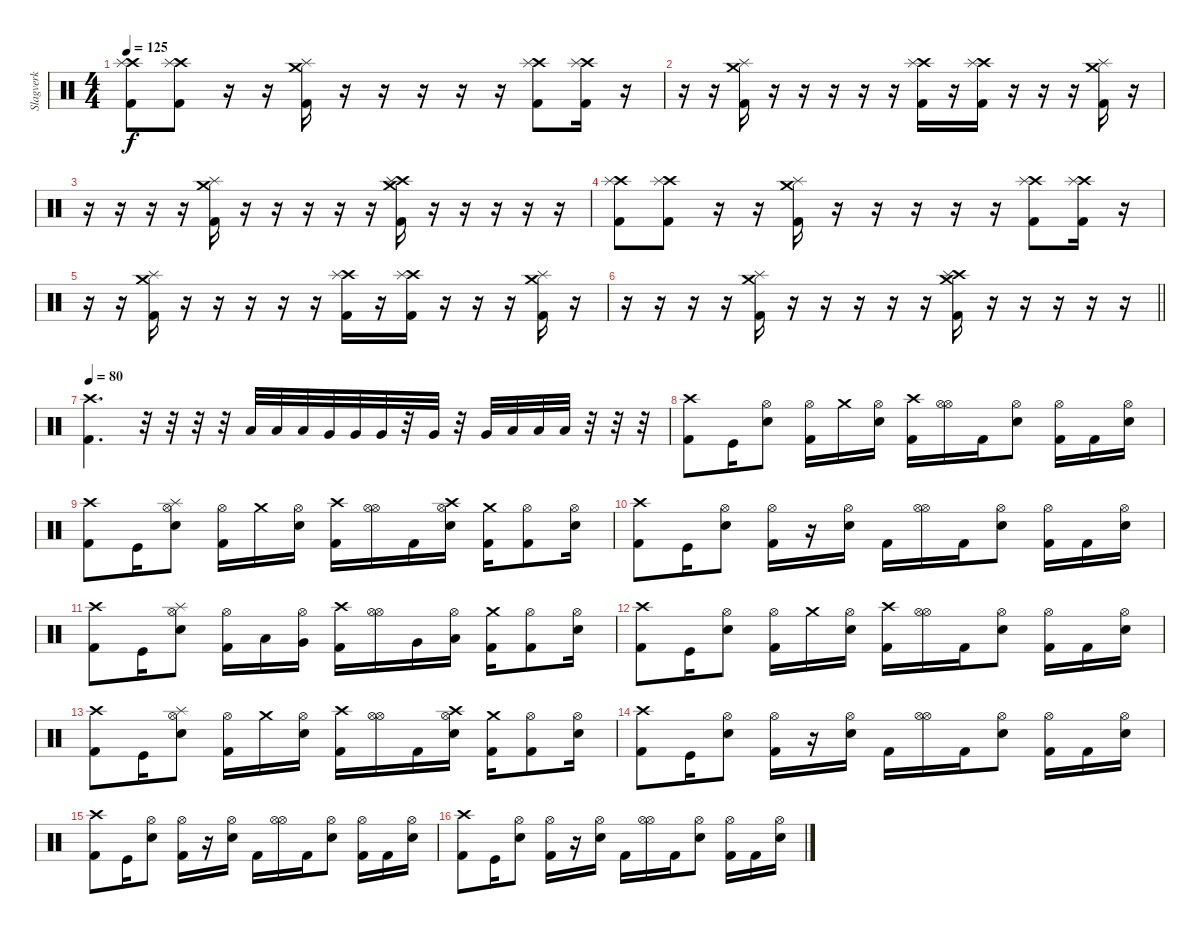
\track ("Slagverk" "Slagverk") {instrument percussion}
\staff
\articulation defaults
\ts (4 4)
\tempo 125
\clef neutral
\ks c
("Kick (hit) 2" "Crash high (hit)" "Splash (hit)").8{dy f} ("Kick (hit) 2" "Crash high (hit)" "Splash (hit)").8 r.16{volume 0} r.16 ("Splash (hit)" "Crash medium (hit)" "Kick (hit) 2").16{volume 13} r.16 r.16 r.16 r.16 r.16 ("Kick (hit) 2" "Crash high (hit)" "Splash (hit)").8 ("Kick (hit) 2" "Crash high (hit)" "Splash (hit)").16 r.16 |
r.16{volume 0} r.16 ("Splash (hit)" "Crash medium (hit)" "Kick (hit) 2").16{volume 13} r.16 r.16 r.16 r.16 r.16 ("Crash high (hit)" "Splash (hit)" "Kick (hit) 2").16 r.16 ("Crash high (hit)" "Kick (hit) 2" "Splash (hit)").16 r.16 r.16{volume 0} r.16 ("Crash medium (hit)" "Kick (hit) 2" "Splash (hit)").16{volume 13} r.16 |
r.16 r.16 r.16 r.16 ("Crash medium (hit)" "Kick (hit) 2" "Splash (hit)").16 r.16 r.16 r.16 r.16 r.16 ("Crash high (hit)" "Kick (hit) 2" "Splash (hit)" "Crash medium (hit)").16 r.16 r.16 r.16 r.16 r.16 |
("Kick (hit) 2" "Crash high (hit)" "Splash (hit)").8 ("Kick (hit) 2" "Crash high (hit)" "Splash (hit)").8 r.16{volume 0} r.16 ("Splash (hit)" "Crash medium (hit)" "Kick (hit) 2").16{volume 13} r.16 r.16 r.16 r.16 r.16 ("Kick (hit) 2" "Crash high (hit)" "Splash (hit)").8 ("Kick (hit) 2" "Crash high (hit)" "Splash (hit)").16 r.16 |
r.16{volume 0} r.16 ("Splash (hit)" "Crash medium (hit)" "Kick (hit) 2").16{volume 13} r.16 r.16 r.16 r.16 r.16 ("Crash high (hit)" "Splash (hit)" "Kick (hit) 2").16 r.16 ("Crash high (hit)" "Kick (hit) 2" "Splash (hit)").16 r.16 r.16{volume 0} r.16 ("Crash medium (hit)" "Kick (hit) 2" "Splash (hit)").16{volume 13} r.16 |
\barLineRight lightlight
r.16 r.16 r.16 r.16 ("Crash medium (hit)" "Kick (hit) 2" "Splash (hit)").16 r.16 r.16 r.16 r.16 r.16 ("Crash high (hit)" "Kick (hit) 2" "Splash (hit)" "Crash medium (hit)").16 r.16 r.16 r.16 r.16 r.16 |
\tempo 80
("Kick (hit) 2" "Crash high (hit)").4{d} r.32 r.32 r.32 r.32 "Low Tom (hit)".32 "Low Tom (hit)".32 "Low Tom (hit)".32 "Very Low Tom (hit)".32 "Very Low Tom (hit)".32 "Very Low Tom (hit)".32 r.32 "Very Low Tom (hit)".32 r.32 "Very Low Tom (hit)".32 "Low Floor Tom (hit)".32 "Low Floor Tom (hit)".32 "Low Floor Tom (hit)".32 r.32 r.32 r.32 |
("Crash high (hit)" "Kick (hit) 2").8 "Kick (hit)".16 ("Hi-Hat (open)" "Snare (hit) 2").8 ("Hi-Hat (open)" "Kick (hit) 2").16 "Crash medium (hit)".16 ("Hi-Hat (open)" "Snare (hit) 2").16 ("Kick (hit) 2" "Crash high (hit)").16 ("Hi-Hat (open)" "Hi-Hat (open)").16 "Kick (hit) 2".16 ("Hi-Hat (open)" "Snare (hit) 2").8 ("Hi-Hat (open)" "Kick (hit) 2").16 "Kick (hit) 2".16 ("Hi-Hat (open)" "Snare (hit) 2").16 |
("Crash high (hit)" "Kick (hit) 2").8 "Kick (hit)".16 ("Hi-Hat (open)" "Snare (hit) 2" "Splash (hit)").8 ("Hi-Hat (open)" "Kick (hit) 2").16 "Crash medium (hit)".16 ("Hi-Hat (open)" "Snare (hit) 2").16 ("Kick (hit) 2" "Crash high (hit)").16 ("Hi-Hat (open)" "Hi-Hat (open)").16 "Kick (hit) 2".16 ("Hi-Hat (open)" "Snare (hit) 2" "Crash high (hit)").16 ("Kick (hit) 2" "Crash medium (hit)").16 ("Hi-Hat (open)" "Kick (hit) 2").8 ("Hi-Hat (open)" "Snare (hit) 2").16 |
("Crash high (hit)" "Kick (hit) 2").8 "Kick (hit)".16 ("Hi-Hat (open)" "Snare (hit) 2").8 ("Hi-Hat (open)" "Kick (hit) 2").16 r.16 ("Hi-Hat (open)" "Snare (hit) 2").16 "Kick (hit) 2".16 ("Hi-Hat (open)" "Hi-Hat (open)").16 "Kick (hit) 2".16 ("Hi-Hat (open)" "Snare (hit) 2").8 ("Hi-Hat (open)" "Kick (hit) 2").16 "Kick (hit) 2".16 ("Hi-Hat (open)" "Snare (hit) 2").16 |
("Crash high (hit)" "Kick (hit) 2").8 "Kick (hit)".16 ("Hi-Hat (open)" "Snare (hit) 2" "Splash (hit)").8 ("Hi-Hat (open)" "Kick (hit) 2").16 "Low Tom (hit)".16 ("Hi-Hat (open)" "Very Low Tom (hit)").16 ("Kick (hit) 2" "Crash high (hit)").16 ("Hi-Hat (open)" "Hi-Hat (open)").16 "Very Low Tom (hit)".16 ("Hi-Hat (open)" "Low Floor Tom (hit)").16 ("Kick (hit) 2" "Crash medium (hit)").16 ("Hi-Hat (open)" "Kick (hit) 2").8 ("Hi-Hat (open)" "Snare (hit) 2").16 |
("Crash high (hit)" "Kick (hit) 2").8 "Kick (hit)".16 ("Hi-Hat (open)" "Snare (hit) 2").8 ("Hi-Hat (open)" "Kick (hit) 2").16 "Crash medium (hit)".16 ("Hi-Hat (open)" "Snare (hit) 2").16 ("Kick (hit) 2" "Crash high (hit)").16 ("Hi-Hat (open)" "Hi-Hat (open)").16 "Kick (hit) 2".16 ("Hi-Hat (open)" "Snare (hit) 2").8 ("Hi-Hat (open)" "Kick (hit) 2").16 "Kick (hit) 2".16 ("Hi-Hat (open)" "Snare (hit) 2").16 |
("Crash high (hit)" "Kick (hit) 2").8 "Kick (hit)".16 ("Hi-Hat (open)" "Snare (hit) 2" "Splash (hit)").8 ("Hi-Hat (open)" "Kick (hit) 2").16 "Crash medium (hit)".16 ("Hi-Hat (open)" "Snare (hit) 2").16 ("Kick (hit) 2" "Crash high (hit)").16 ("Hi-Hat (open)" "Hi-Hat (open)").16 "Kick (hit) 2".16 ("Hi-Hat (open)" "Snare (hit) 2" "Crash high (hit)").16 ("Kick (hit) 2" "Crash medium (hit)").16 ("Hi-Hat (open)" "Kick (hit) 2").8 ("Hi-Hat (open)" "Snare (hit) 2").16 |
("Crash high (hit)" "Kick (hit) 2").8 "Kick (hit)".16 ("Hi-Hat (open)" "Snare (hit) 2").8 ("Hi-Hat (open)" "Kick (hit) 2").16 r.16 ("Hi-Hat (open)" "Snare (hit) 2").16 "Kick (hit) 2".16 ("Hi-Hat (open)" "Hi-Hat (open)").16 "Kick (hit) 2".16 ("Hi-Hat (open)" "Snare (hit) 2").8 ("Hi-Hat (open)" "Kick (hit) 2").16 "Kick (hit) 2".16 ("Hi-Hat (open)" "Snare (hit) 2").16 |
("Crash high (hit)" "Kick (hit) 2").8 "Kick (hit)".16 ("Hi-Hat (open)" "Snare (hit) 2").8 ("Hi-Hat (open)" "Kick (hit) 2").16 r.16 ("Hi-Hat (open)" "Snare (hit) 2").16 "Kick (hit) 2".16 ("Hi-Hat (open)" "Hi-Hat (open)").16 "Kick (hit) 2".16 ("Hi-Hat (open)" "Snare (hit) 2").8 ("Hi-Hat (open)" "Kick (hit) 2").16 "Kick (hit) 2".16 ("Hi-Hat (open)" "Snare (hit) 2").16 |
("Crash high (hit)" "Kick (hit) 2").8 "Kick (hit)".16 ("Hi-Hat (open)" "Snare (hit) 2").8 ("Hi-Hat (open)" "Kick (hit) 2").16 r.16 ("Hi-Hat (open)" "Snare (hit) 2").16 "Kick (hit) 2".16 ("Hi-Hat (open)" "Hi-Hat (open)").16 "Kick (hit) 2".16 ("Hi-Hat (open)" "Snare (hit) 2").8 ("Hi-Hat (open)" "Kick (hit) 2").16 "Kick (hit) 2".16 ("Hi-Hat (open)" "Snare (hit) 2").16
